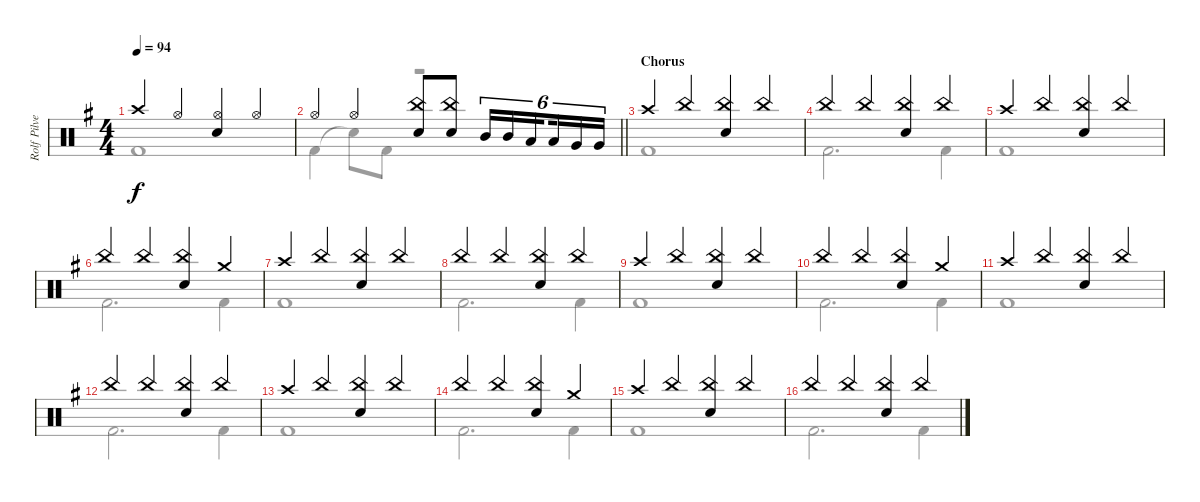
\track ("Rolf Pilve - drums" "Rolf Pilve") {instrument percussion}
\staff {score}
\articulation defaults
\voice
\ts (4 4)
\tempo 94
\clef neutral
\ks eminor "Crash high (hit)".4{dy f} "Hi-Hat (open)".4
("Hi-Hat (open)" "Snare (hit) 2").4 "Hi-Hat (open)".4 |
\barLineRight lightlight "Hi-Hat (open)".4 "Hi-Hat (open)".4
("China (hit)" "Snare (hit) 2").8 ("China (hit)" "Snare (hit) 2").8 "Mid Tom (hit)".16{tu (6 4)} "Mid Tom (hit)".16{tu (6 4)} "Low Tom (hit)".16{tu (6 4) beam splitsecondary} "Low Tom (hit)".16{tu (6 4)} "Very Low Tom (hit)".16{tu (6 4)} "Very Low Tom (hit)".16{tu (6 4)} |
\section ("" "Chorus")
"Crash high (hit)".4 "China (hit)".4 ("China (hit)" "Snare (hit) 2").4 "China (hit)".4 |
"China (hit)".4 "China (hit)".4 ("China (hit)" "Snare (hit) 2").4 "China (hit)".4 |
"Crash high (hit)".4 "China (hit)".4 ("China (hit)" "Snare (hit) 2").4 "China (hit)".4 |
"China (hit)".4 "China (hit)".4 ("China (hit)" "Snare (hit) 2").4 "Crash medium (hit)".4 |
"Crash high (hit)".4 "China (hit)".4 ("China (hit)" "Snare (hit) 2").4 "China (hit)".4 |
"China (hit)".4 "China (hit)".4 ("China (hit)" "Snare (hit) 2").4 "China (hit)".4 |
"Crash high (hit)".4 "China (hit)".4 ("China (hit)" "Snare (hit) 2").4 "China (hit)".4 |
"China (hit)".4 "China (hit)".4 ("China (hit)" "Snare (hit) 2").4 "Crash medium (hit)".4 |
"Crash high (hit)".4 "China (hit)".4 ("China (hit)" "Snare (hit) 2").4 "China (hit)".4 |
"China (hit)".4 "China (hit)".4 ("China (hit)" "Snare (hit) 2").4 "China (hit)".4 |
"Crash high (hit)".4 "China (hit)".4 ("China (hit)" "Snare (hit) 2").4 "China (hit)".4 |
"China (hit)".4 "China (hit)".4 ("China (hit)" "Snare (hit) 2").4 "Crash medium (hit)".4 |
"Crash high (hit)".4 "China (hit)".4 ("China (hit)" "Snare (hit) 2").4 "China (hit)".4 |
"China (hit)".4 "China (hit)".4 ("China (hit)" "Snare (hit) 2").4 "China (hit)".4
\voice
\clef neutral
\ottava regular
\simile none
\ks eminor "Kick (hit) 2".1{dy f}
|
\barLineRight lightlight "Kick (hit) 2".4 "Snare (hit)"{t}.8 "Kick (hit) 2".8
r.2 |
"Kick (hit) 2".1 |
"Kick (hit) 2".2{d} "Kick (hit) 2".4 |
"Kick (hit) 2".1 |
"Kick (hit) 2".2{d} "Kick (hit) 2".4 |
"Kick (hit) 2".1 |
"Kick (hit) 2".2{d} "Kick (hit) 2".4 |
"Kick (hit) 2".1 |
"Kick (hit) 2".2{d} "Kick (hit) 2".4 |
"Kick (hit) 2".1 |
"Kick (hit) 2".2{d} "Kick (hit) 2".4 |
"Kick (hit) 2".1 |
"Kick (hit) 2".2{d} "Kick (hit) 2".4 |
"Kick (hit) 2".1 |
"Kick (hit) 2".2{d} "Kick (hit) 2".4
